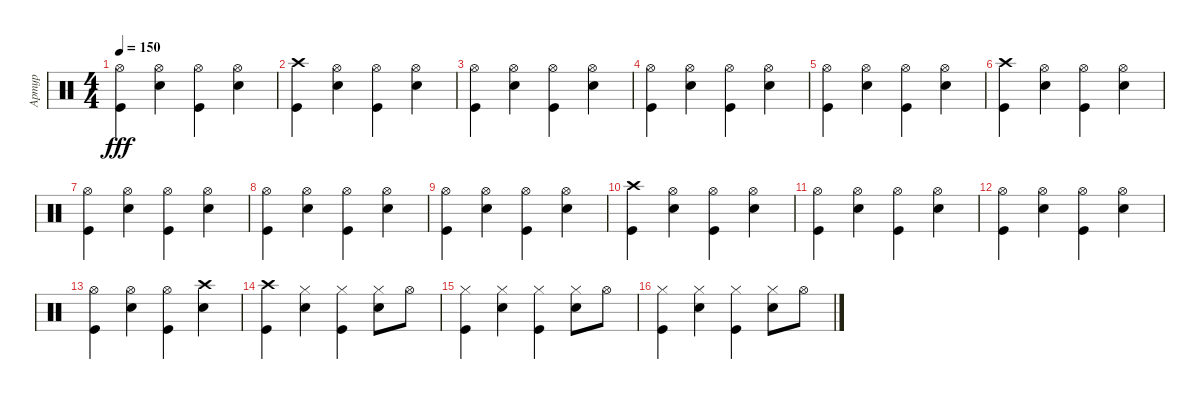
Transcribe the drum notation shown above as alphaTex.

\track ("Артур" "Артур") {instrument percussion}
\staff {score}
\articulation defaults
\ts (4 4)
\tempo 150
\clef neutral
\ks c
("Kick (hit)" "Hi-Hat (open)").4{dy fff} ("Hi-Hat (open)" "Electric Snare (hit)").4 ("Hi-Hat (open)" "Kick (hit)").4 ("Hi-Hat (open)" "Electric Snare (hit)").4 |
("Kick (hit)" "Crash high (hit)").4 ("Hi-Hat (open)" "Electric Snare (hit)").4 ("Hi-Hat (open)" "Kick (hit)").4 ("Hi-Hat (open)" "Electric Snare (hit)").4 |
("Kick (hit)" "Hi-Hat (open)").4 ("Hi-Hat (open)" "Electric Snare (hit)").4 ("Hi-Hat (open)" "Kick (hit)").4 ("Hi-Hat (open)" "Electric Snare (hit)").4 |
("Kick (hit)" "Hi-Hat (open)").4 ("Hi-Hat (open)" "Electric Snare (hit)").4 ("Hi-Hat (open)" "Kick (hit)").4 ("Hi-Hat (open)" "Electric Snare (hit)").4 |
("Kick (hit)" "Hi-Hat (open)").4 ("Hi-Hat (open)" "Electric Snare (hit)").4 ("Hi-Hat (open)" "Kick (hit)").4 ("Hi-Hat (open)" "Electric Snare (hit)").4 |
("Kick (hit)" "Crash high (hit)").4 ("Hi-Hat (open)" "Electric Snare (hit)").4 ("Hi-Hat (open)" "Kick (hit)").4 ("Hi-Hat (open)" "Electric Snare (hit)").4 |
("Kick (hit)" "Hi-Hat (open)").4 ("Hi-Hat (open)" "Electric Snare (hit)").4 ("Hi-Hat (open)" "Kick (hit)").4 ("Hi-Hat (open)" "Electric Snare (hit)").4 |
("Kick (hit)" "Hi-Hat (open)").4 ("Hi-Hat (open)" "Electric Snare (hit)").4 ("Hi-Hat (open)" "Kick (hit)").4 ("Hi-Hat (open)" "Electric Snare (hit)").4 |
("Kick (hit)" "Hi-Hat (open)").4 ("Hi-Hat (open)" "Electric Snare (hit)").4 ("Hi-Hat (open)" "Kick (hit)").4 ("Hi-Hat (open)" "Electric Snare (hit)").4 |
("Kick (hit)" "Crash high (hit)").4 ("Hi-Hat (open)" "Electric Snare (hit)").4 ("Hi-Hat (open)" "Kick (hit)").4 ("Hi-Hat (open)" "Electric Snare (hit)").4 |
("Kick (hit)" "Hi-Hat (open)").4 ("Hi-Hat (open)" "Electric Snare (hit)").4 ("Hi-Hat (open)" "Kick (hit)").4 ("Hi-Hat (open)" "Electric Snare (hit)").4 |
("Kick (hit)" "Hi-Hat (open)").4 ("Hi-Hat (open)" "Electric Snare (hit)").4 ("Hi-Hat (open)" "Kick (hit)").4 ("Hi-Hat (open)" "Electric Snare (hit)").4 |
("Kick (hit)" "Hi-Hat (open)").4 ("Hi-Hat (open)" "Electric Snare (hit)").4 ("Hi-Hat (open)" "Kick (hit)").4 ("Crash high (hit)" "Electric Snare (hit)").4 |
("Crash high (hit)" "Kick (hit)").4 ("Hi-Hat (closed)" "Electric Snare (hit)").4 ("Kick (hit)" "Hi-Hat (closed)").4 ("Hi-Hat (closed)" "Electric Snare (hit)").8 "Hi-Hat (open)".8 |
("Hi-Hat (closed)" "Kick (hit)").4 ("Hi-Hat (closed)" "Electric Snare (hit)").4 ("Kick (hit)" "Hi-Hat (closed)").4 ("Hi-Hat (closed)" "Electric Snare (hit)").8 "Hi-Hat (open)".8 |
("Hi-Hat (closed)" "Kick (hit)").4 ("Hi-Hat (closed)" "Electric Snare (hit)").4 ("Kick (hit)" "Hi-Hat (closed)").4 ("Hi-Hat (closed)" "Electric Snare (hit)").8 "Hi-Hat (open)".8
